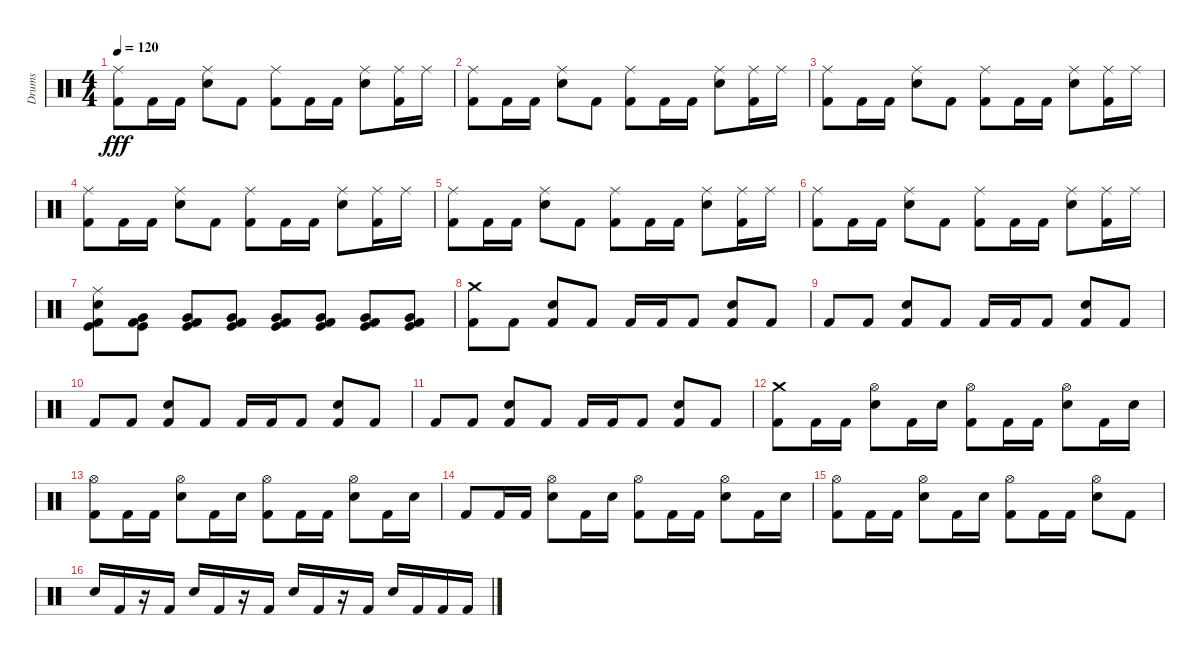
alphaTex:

\track ("Drums" "Drums") {instrument percussion}
\staff {score}
\articulation defaults
\ts (4 4)
\tempo 120
\clef neutral
\ks c
("Ride (middle)" "Kick (hit) 2").8{dy fff} "Kick (hit) 2".16 "Kick (hit) 2".16 ("Ride (middle)" "Electric Snare (hit)").8 "Kick (hit) 2".8 ("Ride (middle)" "Kick (hit) 2").8 "Kick (hit) 2".16 "Kick (hit) 2".16 ("Ride (middle)" "Electric Snare (hit)").8 ("Ride (middle)" "Kick (hit) 2").16 "Ride (middle)".16 |
("Ride (middle)" "Kick (hit) 2").8 "Kick (hit) 2".16 "Kick (hit) 2".16 ("Ride (middle)" "Electric Snare (hit)").8 "Kick (hit) 2".8 ("Ride (middle)" "Kick (hit) 2").8 "Kick (hit) 2".16 "Kick (hit) 2".16 ("Ride (middle)" "Electric Snare (hit)").8 ("Ride (middle)" "Kick (hit) 2").16 "Ride (middle)".16 |
("Ride (middle)" "Kick (hit) 2").8 "Kick (hit) 2".16 "Kick (hit) 2".16 ("Ride (middle)" "Electric Snare (hit)").8 "Kick (hit) 2".8 ("Ride (middle)" "Kick (hit) 2").8 "Kick (hit) 2".16 "Kick (hit) 2".16 ("Ride (middle)" "Electric Snare (hit)").8 ("Ride (middle)" "Kick (hit) 2").16 "Ride (middle)".16 |
("Ride (middle)" "Kick (hit) 2").8 "Kick (hit) 2".16 "Kick (hit) 2".16 ("Ride (middle)" "Electric Snare (hit)").8 "Kick (hit) 2".8 ("Ride (middle)" "Kick (hit) 2").8 "Kick (hit) 2".16 "Kick (hit) 2".16 ("Ride (middle)" "Electric Snare (hit)").8 ("Ride (middle)" "Kick (hit) 2").16 "Ride (middle)".16 |
("Ride (middle)" "Kick (hit) 2").8 "Kick (hit) 2".16 "Kick (hit) 2".16 ("Ride (middle)" "Electric Snare (hit)").8 "Kick (hit) 2".8 ("Ride (middle)" "Kick (hit) 2").8 "Kick (hit) 2".16 "Kick (hit) 2".16 ("Ride (middle)" "Electric Snare (hit)").8 ("Ride (middle)" "Kick (hit) 2").16 "Ride (middle)".16 |
("Ride (middle)" "Kick (hit) 2").8 "Kick (hit) 2".16 "Kick (hit) 2".16 ("Ride (middle)" "Electric Snare (hit)").8 "Kick (hit) 2".8 ("Ride (middle)" "Kick (hit) 2").8 "Kick (hit) 2".16 "Kick (hit) 2".16 ("Ride (middle)" "Electric Snare (hit)").8 ("Ride (middle)" "Kick (hit) 2").16 "Ride (middle)".16 |
("Ride (middle)" "Snare (hit) 2" "Kick (hit) 2" "Kick (hit)").8 ("Very Low Tom (hit)" "Kick (hit) 2" "Kick (hit)").8 ("Very Low Tom (hit)" "Kick (hit) 2" "Kick (hit)").8 ("Very Low Tom (hit)" "Kick (hit) 2" "Kick (hit)").8 ("Very Low Tom (hit)" "Kick (hit) 2" "Kick (hit)").8 ("Very Low Tom (hit)" "Kick (hit) 2" "Kick (hit)").8 ("Very Low Tom (hit)" "Kick (hit) 2" "Kick (hit)").8 ("Very Low Tom (hit)" "Kick (hit) 2" "Kick (hit)").8 |
("Crash medium (hit)" "Kick (hit) 2").8 "Kick (hit) 2".8 ("Snare (hit) 2" "Kick (hit) 2").8 "Kick (hit) 2".8 "Kick (hit) 2".16 "Kick (hit) 2".16 "Kick (hit) 2".8 ("Snare (hit) 2" "Kick (hit) 2").8 "Kick (hit) 2".8 |
"Kick (hit) 2".8 "Kick (hit) 2".8 ("Snare (hit) 2" "Kick (hit) 2").8 "Kick (hit) 2".8 "Kick (hit) 2".16 "Kick (hit) 2".16 "Kick (hit) 2".8 ("Snare (hit) 2" "Kick (hit) 2").8 "Kick (hit) 2".8 |
"Kick (hit) 2".8 "Kick (hit) 2".8 ("Snare (hit) 2" "Kick (hit) 2").8 "Kick (hit) 2".8 "Kick (hit) 2".16 "Kick (hit) 2".16 "Kick (hit) 2".8 ("Snare (hit) 2" "Kick (hit) 2").8 "Kick (hit) 2".8 |
"Kick (hit) 2".8 "Kick (hit) 2".8 ("Snare (hit) 2" "Kick (hit) 2").8 "Kick (hit) 2".8 "Kick (hit) 2".16 "Kick (hit) 2".16 "Kick (hit) 2".8 ("Snare (hit) 2" "Kick (hit) 2").8 "Kick (hit) 2".8 |
("Crash medium (hit)" "Kick (hit) 2").8 "Kick (hit) 2".16 "Kick (hit) 2".16 ("Hi-Hat (open)" "Snare (hit) 2").8 "Kick (hit) 2".16 "Snare (hit) 2".16 ("Hi-Hat (open)" "Kick (hit) 2").8 "Kick (hit) 2".16 "Kick (hit) 2".16 ("Hi-Hat (open)" "Snare (hit) 2").8 "Kick (hit) 2".16 "Snare (hit) 2".16 |
("Hi-Hat (open)" "Kick (hit) 2").8 "Kick (hit) 2".16 "Kick (hit) 2".16 ("Hi-Hat (open)" "Snare (hit) 2").8 "Kick (hit) 2".16 "Snare (hit) 2".16 ("Hi-Hat (open)" "Kick (hit) 2").8 "Kick (hit) 2".16 "Kick (hit) 2".16 ("Hi-Hat (open)" "Snare (hit) 2").8 "Kick (hit) 2".16 "Snare (hit) 2".16 |
"Kick (hit) 2".8 "Kick (hit) 2".16 "Kick (hit) 2".16 ("Hi-Hat (open)" "Snare (hit) 2").8 "Kick (hit) 2".16 "Snare (hit) 2".16 ("Hi-Hat (open)" "Kick (hit) 2").8 "Kick (hit) 2".16 "Kick (hit) 2".16 ("Hi-Hat (open)" "Snare (hit) 2").8 "Kick (hit) 2".16 "Snare (hit) 2".16 |
("Hi-Hat (open)" "Kick (hit) 2").8 "Kick (hit) 2".16 "Kick (hit) 2".16 ("Hi-Hat (open)" "Snare (hit) 2").8 "Kick (hit) 2".16 "Snare (hit) 2".16 ("Hi-Hat (open)" "Kick (hit) 2").8 "Kick (hit) 2".16 "Kick (hit) 2".16 ("Hi-Hat (open)" "Snare (hit) 2").8 "Kick (hit) 2".8 |
"Snare (hit) 2".16 "Kick (hit) 2".16 r.16 "Kick (hit) 2".16 "Snare (hit) 2".16 "Kick (hit) 2".16 r.16 "Kick (hit) 2".16 "Snare (hit) 2".16 "Kick (hit) 2".16 r.16 "Kick (hit) 2".16 "Snare (hit) 2".16 "Kick (hit) 2".16 "Kick (hit) 2".16 "Kick (hit) 2".16
